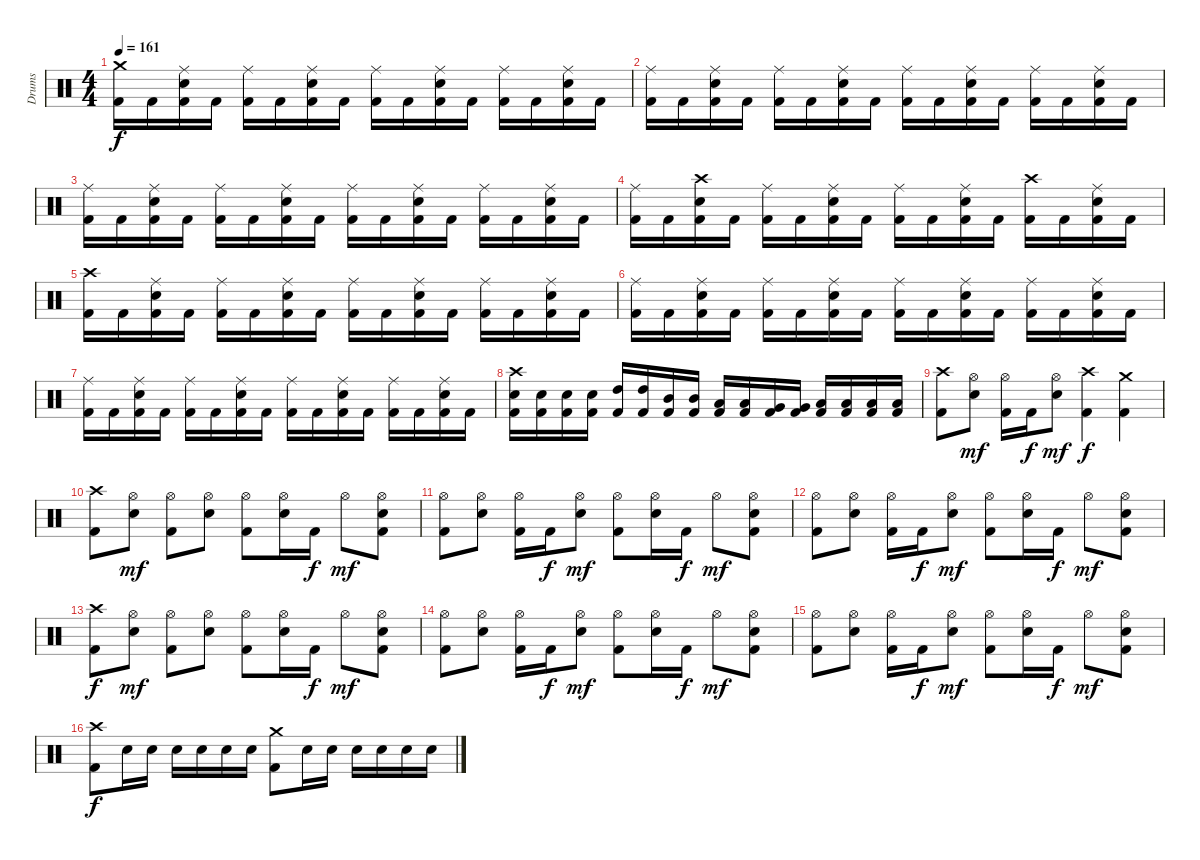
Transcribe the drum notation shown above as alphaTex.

\track ("Drums" "Drums") {instrument percussion}
\staff {score}
\articulation defaults
\ts (4 4)
\tempo 161
\clef neutral
\ks c
("Crash medium (hit)" "Kick (hit) 2").16{dy f} "Kick (hit) 2".16 ("Ride (middle)" "Electric Snare (hit)" "Kick (hit) 2").16 "Kick (hit) 2".16 ("Ride (middle)" "Kick (hit) 2").16 "Kick (hit) 2".16 ("Ride (middle)" "Electric Snare (hit)" "Kick (hit) 2").16 "Kick (hit) 2".16 ("Ride (middle)" "Kick (hit) 2").16 "Kick (hit) 2".16 ("Ride (middle)" "Electric Snare (hit)" "Kick (hit) 2").16 "Kick (hit) 2".16 ("Ride (middle)" "Kick (hit) 2").16 "Kick (hit) 2".16 ("Ride (middle)" "Electric Snare (hit)" "Kick (hit) 2").16 "Kick (hit) 2".16 |
("Ride (middle)" "Kick (hit) 2").16 "Kick (hit) 2".16 ("Ride (middle)" "Electric Snare (hit)" "Kick (hit) 2").16 "Kick (hit) 2".16 ("Ride (middle)" "Kick (hit) 2").16 "Kick (hit) 2".16 ("Ride (middle)" "Electric Snare (hit)" "Kick (hit) 2").16 "Kick (hit) 2".16 ("Ride (middle)" "Kick (hit) 2").16 "Kick (hit) 2".16 ("Ride (middle)" "Electric Snare (hit)" "Kick (hit) 2").16 "Kick (hit) 2".16 ("Ride (middle)" "Kick (hit) 2").16 "Kick (hit) 2".16 ("Ride (middle)" "Electric Snare (hit)" "Kick (hit) 2").16 "Kick (hit) 2".16 |
("Ride (middle)" "Kick (hit) 2").16 "Kick (hit) 2".16 ("Ride (middle)" "Electric Snare (hit)" "Kick (hit) 2").16 "Kick (hit) 2".16 ("Ride (middle)" "Kick (hit) 2").16 "Kick (hit) 2".16 ("Ride (middle)" "Electric Snare (hit)" "Kick (hit) 2").16 "Kick (hit) 2".16 ("Ride (middle)" "Kick (hit) 2").16 "Kick (hit) 2".16 ("Ride (middle)" "Electric Snare (hit)" "Kick (hit) 2").16 "Kick (hit) 2".16 ("Ride (middle)" "Kick (hit) 2").16 "Kick (hit) 2".16 ("Ride (middle)" "Electric Snare (hit)" "Kick (hit) 2").16 "Kick (hit) 2".16 |
("Ride (middle)" "Kick (hit) 2").16 "Kick (hit) 2".16 ("Crash high (hit)" "Electric Snare (hit)" "Kick (hit) 2").16 "Kick (hit) 2".16 ("Ride (middle)" "Kick (hit) 2").16 "Kick (hit) 2".16 ("Ride (middle)" "Electric Snare (hit)" "Kick (hit) 2").16 "Kick (hit) 2".16 ("Ride (middle)" "Kick (hit) 2").16 "Kick (hit) 2".16 ("Ride (middle)" "Electric Snare (hit)" "Kick (hit) 2").16 "Kick (hit) 2".16 ("Crash high (hit)" "Kick (hit) 2").16 "Kick (hit) 2".16 ("Ride (middle)" "Electric Snare (hit)" "Kick (hit) 2").16 "Kick (hit) 2".16 |
("Crash high (hit)" "Kick (hit) 2").16 "Kick (hit) 2".16 ("Ride (middle)" "Electric Snare (hit)" "Kick (hit) 2").16 "Kick (hit) 2".16 ("Ride (middle)" "Kick (hit) 2").16 "Kick (hit) 2".16 ("Ride (middle)" "Electric Snare (hit)" "Kick (hit) 2").16 "Kick (hit) 2".16 ("Ride (middle)" "Kick (hit) 2").16 "Kick (hit) 2".16 ("Ride (middle)" "Electric Snare (hit)" "Kick (hit) 2").16 "Kick (hit) 2".16 ("Ride (middle)" "Kick (hit) 2").16 "Kick (hit) 2".16 ("Ride (middle)" "Electric Snare (hit)" "Kick (hit) 2").16 "Kick (hit) 2".16 |
("Ride (middle)" "Kick (hit) 2").16 "Kick (hit) 2".16 ("Ride (middle)" "Electric Snare (hit)" "Kick (hit) 2").16 "Kick (hit) 2".16 ("Ride (middle)" "Kick (hit) 2").16 "Kick (hit) 2".16 ("Ride (middle)" "Electric Snare (hit)" "Kick (hit) 2").16 "Kick (hit) 2".16 ("Ride (middle)" "Kick (hit) 2").16 "Kick (hit) 2".16 ("Ride (middle)" "Electric Snare (hit)" "Kick (hit) 2").16 "Kick (hit) 2".16 ("Ride (middle)" "Kick (hit) 2").16 "Kick (hit) 2".16 ("Ride (middle)" "Electric Snare (hit)" "Kick (hit) 2").16 "Kick (hit) 2".16 |
("Ride (middle)" "Kick (hit) 2").16 "Kick (hit) 2".16 ("Ride (middle)" "Electric Snare (hit)" "Kick (hit) 2").16 "Kick (hit) 2".16 ("Ride (middle)" "Kick (hit) 2").16 "Kick (hit) 2".16 ("Ride (middle)" "Electric Snare (hit)" "Kick (hit) 2").16 "Kick (hit) 2".16 ("Ride (middle)" "Kick (hit) 2").16 "Kick (hit) 2".16 ("Ride (middle)" "Electric Snare (hit)" "Kick (hit) 2").16 "Kick (hit) 2".16 ("Ride (middle)" "Kick (hit) 2").16 "Kick (hit) 2".16 ("Ride (middle)" "Electric Snare (hit)" "Kick (hit) 2").16 "Kick (hit) 2".16 |
("Crash high (hit)" "Electric Snare (hit)" "Kick (hit) 2").16 ("Electric Snare (hit)" "Kick (hit) 2").16 ("Electric Snare (hit)" "Kick (hit) 2").16 ("Electric Snare (hit)" "Kick (hit) 2").16 ("High Tom (hit)" "Kick (hit) 2").16 ("High Tom (hit)" "Kick (hit) 2").16 ("Mid Tom (hit)" "Kick (hit) 2").16 ("Mid Tom (hit)" "Kick (hit) 2").16 ("Low Tom (hit)" "Kick (hit) 2").16 ("Low Tom (hit)" "Kick (hit) 2").16 ("Very Low Tom (hit)" "Kick (hit) 2").16 ("Very Low Tom (hit)" "Kick (hit) 2").16 ("Low Floor Tom (hit)" "Kick (hit) 2").16 ("Low Floor Tom (hit)" "Kick (hit) 2").16 ("Low Floor Tom (hit)" "Kick (hit) 2").16 ("Low Floor Tom (hit)" "Kick (hit) 2").16 |
("Crash high (hit)" "Kick (hit) 2").8 ("Hi-Hat (open)" "Electric Snare (hit)").8{dy mf} ("Hi-Hat (open)" "Kick (hit) 2").16 "Kick (hit) 2".16{dy f} ("Hi-Hat (open)" "Electric Snare (hit)").8{dy mf} ("Crash high (hit)" "Kick (hit) 2").4{dy f} ("Crash medium (hit)" "Kick (hit) 2").4 |
("Crash high (hit)" "Kick (hit) 2").8 ("Hi-Hat (open)" "Electric Snare (hit)").8{dy mf} ("Hi-Hat (open)" "Kick (hit) 2").8 ("Hi-Hat (open)" "Electric Snare (hit)").8 ("Hi-Hat (open)" "Kick (hit) 2").8 ("Hi-Hat (open)" "Electric Snare (hit)").16 "Kick (hit) 2".16{dy f} "Hi-Hat (open)".8{dy mf} ("Hi-Hat (open)" "Electric Snare (hit)" "Kick (hit) 2").8 |
("Hi-Hat (open)" "Kick (hit) 2").8 ("Hi-Hat (open)" "Electric Snare (hit)").8 ("Hi-Hat (open)" "Kick (hit) 2").16 "Kick (hit) 2".16{dy f} ("Hi-Hat (open)" "Electric Snare (hit)").8{dy mf} ("Hi-Hat (open)" "Kick (hit) 2").8 ("Hi-Hat (open)" "Electric Snare (hit)").16 "Kick (hit) 2".16{dy f} "Hi-Hat (open)".8{dy mf} ("Hi-Hat (open)" "Electric Snare (hit)" "Kick (hit) 2").8 |
("Hi-Hat (open)" "Kick (hit) 2").8 ("Hi-Hat (open)" "Electric Snare (hit)").8 ("Hi-Hat (open)" "Kick (hit) 2").16 "Kick (hit) 2".16{dy f} ("Hi-Hat (open)" "Electric Snare (hit)").8{dy mf} ("Hi-Hat (open)" "Kick (hit) 2").8 ("Hi-Hat (open)" "Electric Snare (hit)").16 "Kick (hit) 2".16{dy f} "Hi-Hat (open)".8{dy mf} ("Hi-Hat (open)" "Electric Snare (hit)" "Kick (hit) 2").8 |
("Crash high (hit)" "Kick (hit) 2").8{dy f} ("Hi-Hat (open)" "Electric Snare (hit)").8{dy mf} ("Hi-Hat (open)" "Kick (hit) 2").8 ("Hi-Hat (open)" "Electric Snare (hit)").8 ("Hi-Hat (open)" "Kick (hit) 2").8 ("Hi-Hat (open)" "Electric Snare (hit)").16 "Kick (hit) 2".16{dy f} "Hi-Hat (open)".8{dy mf} ("Hi-Hat (open)" "Electric Snare (hit)" "Kick (hit) 2").8 |
("Hi-Hat (open)" "Kick (hit) 2").8 ("Hi-Hat (open)" "Electric Snare (hit)").8 ("Hi-Hat (open)" "Kick (hit) 2").16 "Kick (hit) 2".16{dy f} ("Hi-Hat (open)" "Electric Snare (hit)").8{dy mf} ("Hi-Hat (open)" "Kick (hit) 2").8 ("Hi-Hat (open)" "Electric Snare (hit)").16 "Kick (hit) 2".16{dy f} "Hi-Hat (open)".8{dy mf} ("Hi-Hat (open)" "Electric Snare (hit)" "Kick (hit) 2").8 |
("Hi-Hat (open)" "Kick (hit) 2").8 ("Hi-Hat (open)" "Electric Snare (hit)").8 ("Hi-Hat (open)" "Kick (hit) 2").16 "Kick (hit) 2".16{dy f} ("Hi-Hat (open)" "Electric Snare (hit)").8{dy mf} ("Hi-Hat (open)" "Kick (hit) 2").8 ("Hi-Hat (open)" "Electric Snare (hit)").16 "Kick (hit) 2".16{dy f} "Hi-Hat (open)".8{dy mf} ("Hi-Hat (open)" "Electric Snare (hit)" "Kick (hit) 2").8 |
("Crash high (hit)" "Kick (hit) 2").8{dy f} "Electric Snare (hit)".16 "Electric Snare (hit)".16 "Electric Snare (hit)".16 "Electric Snare (hit)".16 "Electric Snare (hit)".16 "Electric Snare (hit)".16 ("Crash medium (hit)" "Kick (hit) 2").8 "Electric Snare (hit)".16 "Electric Snare (hit)".16 "Electric Snare (hit)".16 "Electric Snare (hit)".16 "Electric Snare (hit)".16 "Electric Snare (hit)".16
